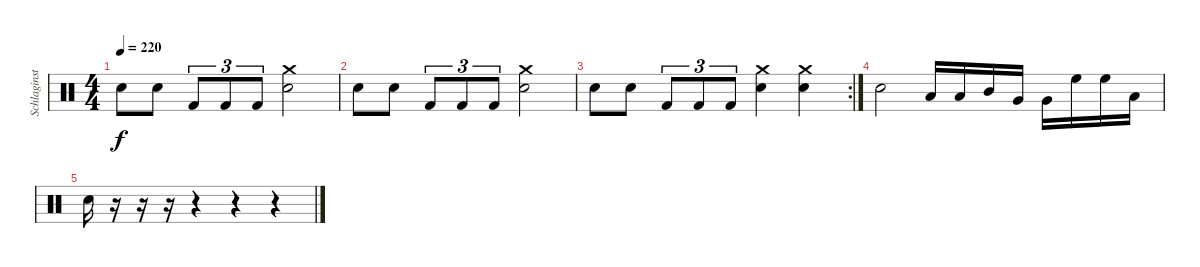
\track ("Schlaginstrumente - Auswahl" "Schlaginst") {instrument percussion}
\staff {score}
\articulation defaults
\ts (4 4)
\tempo 220
\clef neutral
\ks c "Snare (hit) 2".8{dy f} "Snare (hit) 2".8 "Kick (hit) 2".8{tu (3 2)} "Kick (hit) 2".8{tu (3 2)} "Kick (hit) 2".8{tu (3 2)}
("Crash medium (hit)" "Snare (hit) 2").2 |
"Snare (hit) 2".8 "Snare (hit) 2".8 "Kick (hit) 2".8{tu (3 2)} "Kick (hit) 2".8{tu (3 2)} "Kick (hit) 2".8{tu (3 2)} ("Crash medium (hit)" "Snare (hit) 2").2 |
\rc 2 "Snare (hit) 2".8 "Snare (hit) 2".8 "Kick (hit) 2".8{tu (3 2)} "Kick (hit) 2".8{tu (3 2)} "Kick (hit) 2".8{tu (3 2)}
("Crash medium (hit)" "Snare (hit) 2").4 ("Crash medium (hit)" "Snare (hit) 2").4 |
"Snare (hit) 2".2 "Low Tom (hit)".16 "Low Tom (hit)".16 "Mid Tom (hit)".16 "Very Low Tom (hit)".16 "Very Low Tom (hit)".16 "High Floor Tom (hit)".16 "High Floor Tom (hit)".16 "Low Tom (hit)".16 |
"Snare (hit) 2".16 r.16 r.16 r.16 r.4 r.4 r.4
